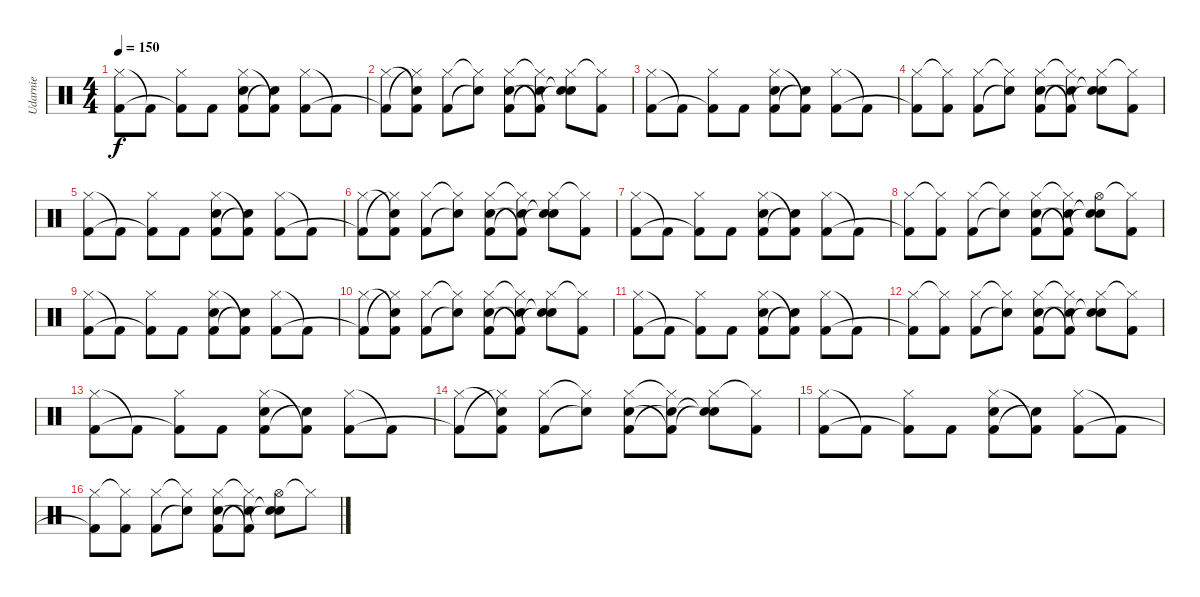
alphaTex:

\track ("Udarnie" "Udarnie") {instrument percussion}
\staff {score}
\articulation defaults
\ts (4 4)
\tempo 150
\clef neutral
\ks c
("Hi-Hat (closed)" "Kick (hit) 2").8{dy f} "Kick (hit) 2"{t}.8 ("Hi-Hat (closed)" "Kick (hit) 2"{t}).8 "Kick (hit) 2".8 ("Hi-Hat (closed)" "Kick (hit) 2" "Snare (hit) 2").8 ("Kick (hit) 2"{t} "Snare (hit) 2"{t}).8 ("Hi-Hat (closed)" "Kick (hit) 2").8 "Kick (hit) 2"{t}.8 |
("Hi-Hat (closed)" "Kick (hit) 2"{t}).8 ("Snare (hit)"{t} "Hi-Hat (closed)"{t} "Kick (hit) 2").8 ("Hi-Hat (closed)" "Kick (hit) 2").8 ("Hi-Hat (closed)"{t} "Snare (hit)"{t}).8 ("Hi-Hat (closed)" "Snare (hit) 2" "Kick (hit) 2").8 ("Hi-Hat (closed)"{t} "Kick (hit) 2"{t} "Snare (hit) 2"{t}).8 ("Hi-Hat (closed)" "Snare (hit)"{t} "Snare (hit)"{t}).8 ("Hi-Hat (closed)"{t} "Kick (hit) 2").8 |
("Hi-Hat (closed)" "Kick (hit) 2").8 "Kick (hit) 2"{t}.8 ("Hi-Hat (closed)" "Kick (hit) 2"{t}).8 "Kick (hit) 2".8 ("Hi-Hat (closed)" "Kick (hit) 2" "Snare (hit) 2").8 ("Kick (hit) 2"{t} "Snare (hit) 2"{t}).8 ("Hi-Hat (closed)" "Kick (hit) 2").8 "Kick (hit) 2"{t}.8 |
("Hi-Hat (closed)" "Kick (hit) 2"{t}).8 ("Hi-Hat (closed)"{t} "Kick (hit) 2").8 ("Hi-Hat (closed)" "Kick (hit) 2").8 ("Hi-Hat (closed)"{t} "Snare (hit)"{t}).8 ("Hi-Hat (closed)" "Snare (hit) 2" "Kick (hit) 2").8 ("Hi-Hat (closed)"{t} "Kick (hit) 2"{t} "Snare (hit) 2"{t}).8 ("Hi-Hat (closed)" "Snare (hit)"{t} "Snare (hit)"{t}).8 ("Hi-Hat (closed)"{t} "Kick (hit) 2").8 |
("Hi-Hat (closed)" "Kick (hit) 2").8 "Kick (hit) 2"{t}.8 ("Hi-Hat (closed)" "Kick (hit) 2"{t}).8 "Kick (hit) 2".8 ("Hi-Hat (closed)" "Kick (hit) 2" "Snare (hit) 2").8 ("Kick (hit) 2"{t} "Snare (hit) 2"{t}).8 ("Hi-Hat (closed)" "Kick (hit) 2").8 "Kick (hit) 2"{t}.8 |
("Hi-Hat (closed)" "Kick (hit) 2"{t}).8 ("Snare (hit)"{t} "Hi-Hat (closed)"{t} "Kick (hit) 2").8 ("Hi-Hat (closed)" "Kick (hit) 2").8 ("Hi-Hat (closed)"{t} "Snare (hit)"{t}).8 ("Hi-Hat (closed)" "Snare (hit) 2" "Kick (hit) 2").8 ("Hi-Hat (closed)"{t} "Kick (hit) 2"{t} "Snare (hit) 2"{t}).8 ("Hi-Hat (closed)" "Snare (hit)"{t} "Snare (hit)"{t}).8 ("Hi-Hat (closed)"{t} "Kick (hit) 2").8 |
("Hi-Hat (closed)" "Kick (hit) 2").8 "Kick (hit) 2"{t}.8 ("Hi-Hat (closed)" "Kick (hit) 2"{t}).8 "Kick (hit) 2".8 ("Hi-Hat (closed)" "Kick (hit) 2" "Snare (hit) 2").8 ("Kick (hit) 2"{t} "Snare (hit) 2"{t}).8 ("Hi-Hat (closed)" "Kick (hit) 2").8 "Kick (hit) 2"{t}.8 |
("Hi-Hat (closed)" "Kick (hit) 2"{t}).8 ("Hi-Hat (closed)"{t} "Kick (hit) 2").8 ("Hi-Hat (closed)" "Kick (hit) 2").8 ("Hi-Hat (closed)"{t} "Snare (hit)"{t}).8 ("Hi-Hat (closed)" "Snare (hit) 2" "Kick (hit) 2").8 ("Hi-Hat (closed)"{t} "Kick (hit) 2"{t} "Snare (hit) 2"{t}).8 ("Hi-Hat (open)" "Snare (hit)"{t} "Snare (hit)"{t}).8 ("Hi-Hat (closed)"{t} "Kick (hit) 2").8 |
("Hi-Hat (closed)" "Kick (hit) 2").8 "Kick (hit) 2"{t}.8 ("Hi-Hat (closed)" "Kick (hit) 2"{t}).8 "Kick (hit) 2".8 ("Hi-Hat (closed)" "Kick (hit) 2" "Snare (hit) 2").8 ("Kick (hit) 2"{t} "Snare (hit) 2"{t}).8 ("Hi-Hat (closed)" "Kick (hit) 2").8 "Kick (hit) 2"{t}.8 |
("Hi-Hat (closed)" "Kick (hit) 2"{t}).8 ("Snare (hit)"{t} "Hi-Hat (closed)"{t} "Kick (hit) 2").8 ("Hi-Hat (closed)" "Kick (hit) 2").8 ("Hi-Hat (closed)"{t} "Snare (hit)"{t}).8 ("Hi-Hat (closed)" "Snare (hit) 2" "Kick (hit) 2").8 ("Hi-Hat (closed)"{t} "Kick (hit) 2"{t} "Snare (hit) 2"{t}).8 ("Hi-Hat (closed)" "Snare (hit)"{t} "Snare (hit)"{t}).8 ("Hi-Hat (closed)"{t} "Kick (hit) 2").8 |
("Hi-Hat (closed)" "Kick (hit) 2").8 "Kick (hit) 2"{t}.8 ("Hi-Hat (closed)" "Kick (hit) 2"{t}).8 "Kick (hit) 2".8 ("Hi-Hat (closed)" "Kick (hit) 2" "Snare (hit) 2").8 ("Kick (hit) 2"{t} "Snare (hit) 2"{t}).8 ("Hi-Hat (closed)" "Kick (hit) 2").8 "Kick (hit) 2"{t}.8 |
("Hi-Hat (closed)" "Kick (hit) 2"{t}).8 ("Hi-Hat (closed)"{t} "Kick (hit) 2").8 ("Hi-Hat (closed)" "Kick (hit) 2").8 ("Hi-Hat (closed)"{t} "Snare (hit)"{t}).8 ("Hi-Hat (closed)" "Snare (hit) 2" "Kick (hit) 2").8 ("Hi-Hat (closed)"{t} "Kick (hit) 2"{t} "Snare (hit) 2"{t}).8 ("Hi-Hat (closed)" "Snare (hit)"{t} "Snare (hit)"{t}).8 ("Hi-Hat (closed)"{t} "Kick (hit) 2").8 |
("Hi-Hat (closed)" "Kick (hit) 2").8 "Kick (hit) 2"{t}.8 ("Hi-Hat (closed)" "Kick (hit) 2"{t}).8 "Kick (hit) 2".8 ("Hi-Hat (closed)" "Kick (hit) 2" "Snare (hit) 2").8 ("Kick (hit) 2"{t} "Snare (hit) 2"{t}).8 ("Hi-Hat (closed)" "Kick (hit) 2").8 "Kick (hit) 2"{t}.8 |
("Hi-Hat (closed)" "Kick (hit) 2"{t}).8 ("Snare (hit)"{t} "Hi-Hat (closed)"{t} "Kick (hit) 2").8 ("Hi-Hat (closed)" "Kick (hit) 2").8 ("Hi-Hat (closed)"{t} "Snare (hit)"{t}).8 ("Hi-Hat (closed)" "Snare (hit) 2" "Kick (hit) 2").8 ("Hi-Hat (closed)"{t} "Kick (hit) 2"{t} "Snare (hit) 2"{t}).8 ("Hi-Hat (closed)" "Snare (hit)"{t} "Snare (hit)"{t}).8 ("Hi-Hat (closed)"{t} "Kick (hit) 2").8 |
("Hi-Hat (closed)" "Kick (hit) 2").8 "Kick (hit) 2"{t}.8 ("Hi-Hat (closed)" "Kick (hit) 2"{t}).8 "Kick (hit) 2".8 ("Hi-Hat (closed)" "Kick (hit) 2" "Snare (hit) 2").8 ("Kick (hit) 2"{t} "Snare (hit) 2"{t}).8 ("Hi-Hat (closed)" "Kick (hit) 2").8 "Kick (hit) 2"{t}.8 |
("Hi-Hat (closed)" "Kick (hit) 2"{t}).8 ("Hi-Hat (closed)"{t} "Kick (hit) 2").8 ("Hi-Hat (closed)" "Kick (hit) 2").8 ("Hi-Hat (closed)"{t} "Snare (hit)"{t}).8 ("Hi-Hat (closed)" "Snare (hit) 2" "Kick (hit) 2").8 ("Hi-Hat (closed)"{t} "Kick (hit) 2"{t} "Snare (hit) 2"{t}).8 ("Hi-Hat (open)" "Snare (hit)"{t} "Snare (hit)"{t}).8 "Hi-Hat (closed)"{t}.8
